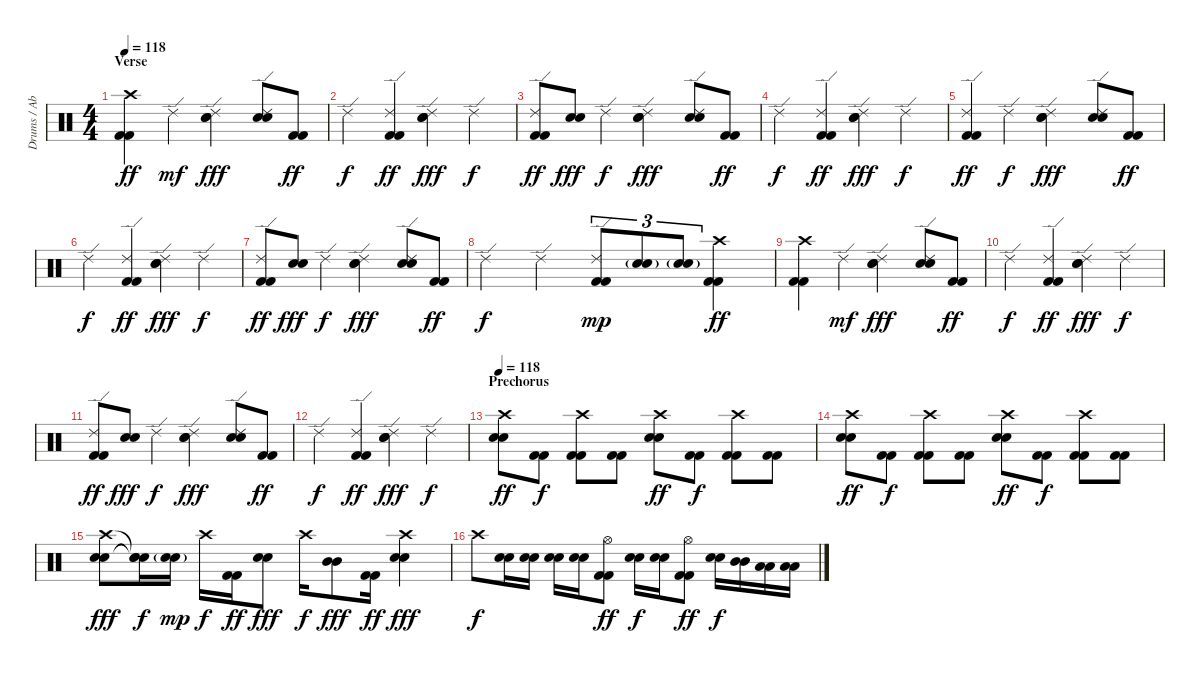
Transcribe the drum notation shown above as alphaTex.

\track ("Drums / Abe Cunningham" "Drums / Ab") {instrument percussion}
\staff {score}
\articulation defaults
\ts (4 4)
\section ("" "Verse")
\tempo 118
\clef neutral
\ks c
("Crash high (hit)" "Kick (hit) 2" "Kick (hit) 2").4{dy ff} "Ride (edge) 2".4{dy mf} ("Ride (edge) 2" "Electric Snare (hit)" "Electric Snare (hit)").4{dy fff} ("Ride (edge) 2" "Electric Snare (hit)" "Electric Snare (hit)").8 ("Kick (hit) 2" "Kick (hit) 2").8{dy ff} |
"Ride (edge) 2".4{dy f} ("Ride (edge) 2" "Kick (hit) 2" "Kick (hit) 2").4{dy ff} ("Ride (edge) 2" "Electric Snare (hit)" "Electric Snare (hit)").4{dy fff} "Ride (edge) 2".4{dy f} |
("Ride (edge) 2" "Kick (hit) 2" "Kick (hit) 2").8{dy ff} ("Electric Snare (hit)" "Electric Snare (hit)").8{dy fff} "Ride (edge) 2".4{dy f} ("Ride (edge) 2" "Electric Snare (hit)" "Electric Snare (hit)").4{dy fff} ("Ride (edge) 2" "Electric Snare (hit)" "Electric Snare (hit)").8 ("Kick (hit) 2" "Kick (hit) 2").8{dy ff} |
"Ride (edge) 2".4{dy f} ("Ride (edge) 2" "Kick (hit) 2" "Kick (hit) 2").4{dy ff} ("Ride (edge) 2" "Electric Snare (hit)" "Electric Snare (hit)").4{dy fff} "Ride (edge) 2".4{dy f} |
("Ride (edge) 2" "Kick (hit) 2" "Kick (hit) 2").4{dy ff} "Ride (edge) 2".4{dy f} ("Ride (edge) 2" "Electric Snare (hit)" "Electric Snare (hit)").4{dy fff} ("Ride (edge) 2" "Electric Snare (hit)" "Electric Snare (hit)").8 ("Kick (hit) 2" "Kick (hit) 2").8{dy ff} |
"Ride (edge) 2".4{dy f} ("Ride (edge) 2" "Kick (hit) 2" "Kick (hit) 2").4{dy ff} ("Ride (edge) 2" "Electric Snare (hit)" "Electric Snare (hit)").4{dy fff} "Ride (edge) 2".4{dy f} |
("Ride (edge) 2" "Kick (hit) 2" "Kick (hit) 2").8{dy ff} ("Electric Snare (hit)" "Electric Snare (hit)").8{dy fff} "Ride (edge) 2".4{dy f} ("Ride (edge) 2" "Electric Snare (hit)" "Electric Snare (hit)").4{dy fff} ("Ride (edge) 2" "Electric Snare (hit)" "Electric Snare (hit)").8 ("Kick (hit) 2" "Kick (hit) 2").8{dy ff} |
"Ride (edge) 2".4{dy f} "Ride (edge) 2".4 ("Ride (edge) 2" "Kick (hit) 2" "Kick (hit) 2").8{tu (3 2) dy mp} ("Electric Snare (hit)"{g} "Electric Snare (hit)"{g}).8{tu (3 2)} ("Electric Snare (hit)"{g} "Electric Snare (hit)"{g}).8{tu (3 2)} ("Crash high (hit)" "Kick (hit) 2" "Kick (hit) 2").4{dy ff} |
("Crash high (hit)" "Kick (hit) 2" "Kick (hit) 2").4 "Ride (edge) 2".4{dy mf} ("Ride (edge) 2" "Electric Snare (hit)" "Electric Snare (hit)").4{dy fff} ("Ride (edge) 2" "Electric Snare (hit)" "Electric Snare (hit)").8 ("Kick (hit) 2" "Kick (hit) 2").8{dy ff} |
"Ride (edge) 2".4{dy f} ("Ride (edge) 2" "Kick (hit) 2" "Kick (hit) 2").4{dy ff} ("Ride (edge) 2" "Electric Snare (hit)" "Electric Snare (hit)").4{dy fff} "Ride (edge) 2".4{dy f} |
("Ride (edge) 2" "Kick (hit) 2" "Kick (hit) 2").8{dy ff} ("Electric Snare (hit)" "Electric Snare (hit)").8{dy fff} "Ride (edge) 2".4{dy f} ("Ride (edge) 2" "Electric Snare (hit)" "Electric Snare (hit)").4{dy fff} ("Ride (edge) 2" "Electric Snare (hit)" "Electric Snare (hit)").8 ("Kick (hit) 2" "Kick (hit) 2").8{dy ff} |
"Ride (edge) 2".4{dy f} ("Ride (edge) 2" "Kick (hit) 2" "Kick (hit) 2").4{dy ff} ("Ride (edge) 2" "Electric Snare (hit)" "Electric Snare (hit)").4{dy fff} "Ride (edge) 2".4{dy f} |
\section ("" "Prechorus")
\tempo 118
("Crash high (hit)" "Electric Snare (hit)" "Electric Snare (hit)").8{dy ff} ("Kick (hit) 2" "Kick (hit) 2").8{dy f} ("Crash high (hit)" "Kick (hit) 2" "Kick (hit) 2").8 ("Kick (hit) 2" "Kick (hit) 2").8 ("Crash high (hit)" "Electric Snare (hit)" "Electric Snare (hit)").8{dy ff} ("Kick (hit) 2" "Kick (hit) 2").8{dy f} ("Crash high (hit)" "Kick (hit) 2" "Kick (hit) 2").8 ("Kick (hit) 2" "Kick (hit) 2").8 |
("Crash high (hit)" "Electric Snare (hit)" "Electric Snare (hit)").8{dy ff} ("Kick (hit) 2" "Kick (hit) 2").8{dy f} ("Crash high (hit)" "Kick (hit) 2" "Kick (hit) 2").8 ("Kick (hit) 2" "Kick (hit) 2").8 ("Crash high (hit)" "Electric Snare (hit)" "Electric Snare (hit)").8{dy ff} ("Kick (hit) 2" "Kick (hit) 2").8{dy f} ("Crash high (hit)" "Kick (hit) 2" "Kick (hit) 2").8 ("Kick (hit) 2" "Kick (hit) 2").8 |
("Crash high (hit)" "Electric Snare (hit)" "Electric Snare (hit)").8{dy fff} ("Snare (hit)"{t} "Snare (hit)"{t} "Snare (hit)"{t}).16{dy f} ("Electric Snare (hit)"{g} "Electric Snare (hit)"{g}).16{dy mp} "Crash high (hit)".16{dy f} ("Kick (hit) 2" "Kick (hit) 2").16{dy ff} ("Electric Snare (hit)" "Electric Snare (hit)").8{dy fff} "Crash high (hit)".16{dy f} ("Mid Tom (hit)" "Mid Tom (hit)").8{dy fff} ("Kick (hit) 2" "Kick (hit) 2").16{dy ff} ("Crash high (hit)" "Electric Snare (hit)" "Electric Snare (hit)").4{dy fff} |
"Crash high (hit)".8{dy f} ("Electric Snare (hit)" "Electric Snare (hit)").16 ("Electric Snare (hit)" "Electric Snare (hit)").16 ("Electric Snare (hit)" "Electric Snare (hit)").16 ("Electric Snare (hit)" "Electric Snare (hit)").16 ("Hi-Hat (open)" "Kick (hit) 2" "Kick (hit) 2").8{dy ff} ("Electric Snare (hit)" "Electric Snare (hit)").16{dy f} ("Electric Snare (hit)" "Electric Snare (hit)").16 ("Hi-Hat (open)" "Kick (hit) 2" "Kick (hit) 2").8{dy ff} ("Electric Snare (hit)" "Electric Snare (hit)").16{dy f} ("Mid Tom (hit)" "Mid Tom (hit)").16 ("Low Tom (hit)" "Low Tom (hit)").16 ("Low Tom (hit)" "Low Tom (hit)").16
